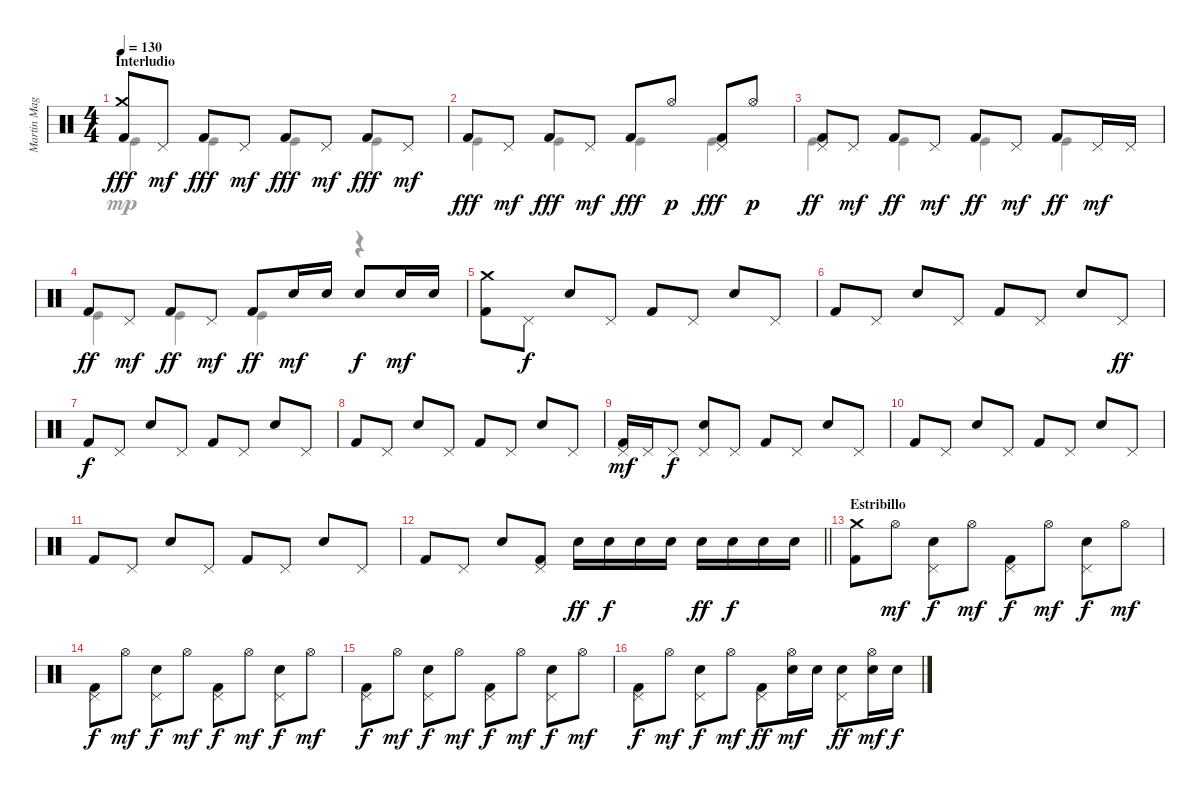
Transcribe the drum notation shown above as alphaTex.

\track ("Martin Magliano" "Martin Mag") {instrument percussion}
\staff {score}
\articulation defaults
\voice
\ts (4 4)
\section ("" "Interludio")
\tempo 130
\clef neutral
\ks c
("Crash medium (hit)" "Kick (hit) 2").8{dy fff} "Pedal Hi-Hat (hit)".8{dy mf} "Kick (hit) 2".8{dy fff} "Pedal Hi-Hat (hit)".8{dy mf} "Kick (hit) 2".8{dy fff} "Pedal Hi-Hat (hit)".8{dy mf} "Kick (hit) 2".8{dy fff} "Pedal Hi-Hat (hit)".8{dy mf} |
"Kick (hit) 2".8{dy fff} "Pedal Hi-Hat (hit)".8{dy mf} "Kick (hit) 2".8{dy fff} "Pedal Hi-Hat (hit)".8{dy mf} "Kick (hit) 2".8{dy fff} "Hi-Hat (open)".8{dy p} ("Pedal Hi-Hat (hit)" "Kick (hit) 2").8{dy fff} "Hi-Hat (open)".8{dy p} |
("Pedal Hi-Hat (hit)" "Kick (hit) 2").8{dy ff} "Pedal Hi-Hat (hit)".8{dy mf} "Kick (hit) 2".8{dy ff} "Pedal Hi-Hat (hit)".8{dy mf} "Kick (hit) 2".8{dy ff} "Pedal Hi-Hat (hit)".8{dy mf} "Kick (hit) 2".8{dy ff} "Pedal Hi-Hat (hit)".16{dy mf} "Pedal Hi-Hat (hit)".16 |
"Kick (hit) 2".8{dy ff} "Pedal Hi-Hat (hit)".8{dy mf} "Kick (hit) 2".8{dy ff} "Pedal Hi-Hat (hit)".8{dy mf} "Kick (hit) 2".8{dy ff} "Snare (hit) 2".16{dy mf} "Snare (hit) 2".16 "Snare (hit) 2".8{dy f} "Snare (hit) 2".16{dy mf} "Snare (hit) 2".16 |
("Crash medium (hit)" "Kick (hit) 2").8 "Pedal Hi-Hat (hit)".8{dy f} "Snare (hit) 2".8 "Pedal Hi-Hat (hit)".8 "Kick (hit) 2".8 "Pedal Hi-Hat (hit)".8 "Snare (hit) 2".8 "Pedal Hi-Hat (hit)".8 |
"Kick (hit) 2".8 "Pedal Hi-Hat (hit)".8 "Snare (hit) 2".8 "Pedal Hi-Hat (hit)".8 "Kick (hit) 2".8 "Pedal Hi-Hat (hit)".8 "Snare (hit) 2".8 "Pedal Hi-Hat (hit)".8{dy ff} |
"Kick (hit) 2".8{dy f} "Pedal Hi-Hat (hit)".8 "Snare (hit) 2".8 "Pedal Hi-Hat (hit)".8 "Kick (hit) 2".8 "Pedal Hi-Hat (hit)".8 "Snare (hit) 2".8 "Pedal Hi-Hat (hit)".8 |
"Kick (hit) 2".8 "Pedal Hi-Hat (hit)".8 "Snare (hit) 2".8 "Pedal Hi-Hat (hit)".8 "Kick (hit) 2".8 "Pedal Hi-Hat (hit)".8 "Snare (hit) 2".8 "Pedal Hi-Hat (hit)".8 |
("Pedal Hi-Hat (hit)" "Kick (hit) 2").16{dy mf} "Pedal Hi-Hat (hit)".16 "Pedal Hi-Hat (hit)".8{dy f} ("Pedal Hi-Hat (hit)" "Snare (hit) 2").8 "Pedal Hi-Hat (hit)".8 "Kick (hit) 2".8 "Pedal Hi-Hat (hit)".8 "Snare (hit) 2".8 "Pedal Hi-Hat (hit)".8 |
"Kick (hit) 2".8 "Pedal Hi-Hat (hit)".8 "Snare (hit) 2".8 "Pedal Hi-Hat (hit)".8 "Kick (hit) 2".8 "Pedal Hi-Hat (hit)".8 "Snare (hit) 2".8 "Pedal Hi-Hat (hit)".8 |
"Kick (hit) 2".8 "Pedal Hi-Hat (hit)".8 "Snare (hit) 2".8 "Pedal Hi-Hat (hit)".8 "Kick (hit) 2".8 "Pedal Hi-Hat (hit)".8 "Snare (hit) 2".8 "Pedal Hi-Hat (hit)".8 |
\barLineRight lightlight "Kick (hit) 2".8 "Pedal Hi-Hat (hit)".8 "Snare (hit) 2".8
("Pedal Hi-Hat (hit)" "Kick (hit) 2").8 "Snare (hit) 2".16{dy ff} "Snare (hit) 2".16{dy f} "Snare (hit) 2".16 "Snare (hit) 2".16 "Snare (hit) 2".16{dy ff} "Snare (hit) 2".16{dy f} "Snare (hit) 2".16 "Snare (hit) 2".16 |
\section ("" "Estribillo")
("Crash medium (hit)" "Kick (hit) 2").8 "Hi-Hat (open)".8{dy mf} ("Pedal Hi-Hat (hit)" "Snare (hit) 2").8{dy f} "Hi-Hat (open)".8{dy mf} ("Pedal Hi-Hat (hit)" "Kick (hit) 2").8{dy f} "Hi-Hat (open)".8{dy mf} ("Pedal Hi-Hat (hit)" "Snare (hit) 2").8{dy f} "Hi-Hat (open)".8{dy mf} |
("Pedal Hi-Hat (hit)" "Kick (hit) 2").8{dy f} "Hi-Hat (open)".8{dy mf} ("Pedal Hi-Hat (hit)" "Snare (hit) 2").8{dy f} "Hi-Hat (open)".8{dy mf} ("Pedal Hi-Hat (hit)" "Kick (hit) 2").8{dy f} "Hi-Hat (open)".8{dy mf} ("Pedal Hi-Hat (hit)" "Snare (hit) 2").8{dy f} "Hi-Hat (open)".8{dy mf} |
("Pedal Hi-Hat (hit)" "Kick (hit) 2").8{dy f} "Hi-Hat (open)".8{dy mf} ("Pedal Hi-Hat (hit)" "Snare (hit) 2").8{dy f} "Hi-Hat (open)".8{dy mf} ("Pedal Hi-Hat (hit)" "Kick (hit) 2").8{dy f} "Hi-Hat (open)".8{dy mf} ("Pedal Hi-Hat (hit)" "Snare (hit) 2").8{dy f} "Hi-Hat (open)".8{dy mf} |
("Pedal Hi-Hat (hit)" "Kick (hit) 2").8{dy f} "Hi-Hat (open)".8{dy mf} ("Pedal Hi-Hat (hit)" "Snare (hit) 2").8{dy f} "Hi-Hat (open)".8{dy mf} ("Pedal Hi-Hat (hit)" "Kick (hit) 2").8{dy ff} ("Hi-Hat (open)" "Snare (hit) 2").16{dy mf} "Snare (hit) 2".16 ("Pedal Hi-Hat (hit)" "Snare (hit) 2").8{dy ff} ("Hi-Hat (open)" "Snare (hit) 2").16{dy mf} "Snare (hit) 2".16{dy f}
\voice
\clef neutral
\ottava regular
\simile none
\ks c "Kick (hit)".4{dy mp} "Kick (hit)".4 "Kick (hit)".4 "Kick (hit)".4
|
"Kick (hit)".4 "Kick (hit)".4 "Kick (hit)".4 "Kick (hit)".4 |
"Kick (hit)".4 "Kick (hit)".4 "Kick (hit)".4 "Kick (hit)".4 |
"Kick (hit)".4 "Kick (hit)".4 "Kick (hit)".4 r.4 |
|
|
|
|
|
|
|
\barLineRight lightlight
|
|
|
|
